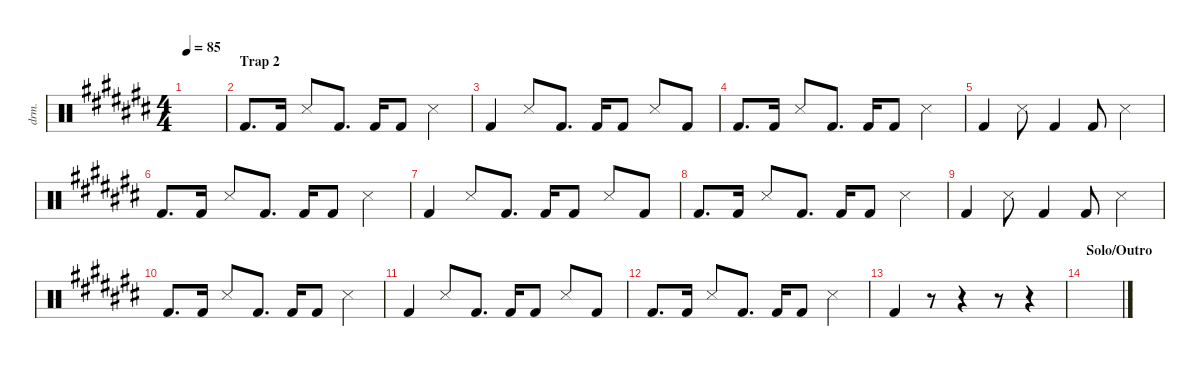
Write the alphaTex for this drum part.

\defaultSystemsLayout 4
\hideDynamics
\bracketExtendMode nobrackets
\otherSystemsTrackNameOrientation horizontal
\track ("Drumkit" "drm.") {instrument percussion}
\staff {score}
\articulation defaults
\ts (4 4)
\tempo 85
\clef neutral
\ks a#minor
|
\section ("" "Trap 2")
"Kick (hit) 2"{acc forcenatural}.8{d} "Kick (hit) 2"{acc forcenatural}.16 "Snare (side stick) 3"{acc forcenatural}.8 "Kick (hit) 2"{acc forcenatural}.8{d} "Kick (hit) 2"{acc forcenatural}.16 "Kick (hit) 2"{acc forcenatural}.8 "Snare (side stick) 3"{acc forcenatural}.4 |
"Kick (hit) 2"{acc forcenatural}.4 "Snare (side stick) 3"{acc forcenatural}.8 "Kick (hit) 2"{acc forcenatural}.8{d} "Kick (hit) 2"{acc forcenatural}.16 "Kick (hit) 2"{acc forcenatural}.8 "Snare (side stick) 3"{acc forcenatural}.8 "Kick (hit) 2"{acc forcenatural}.8 |
"Kick (hit) 2"{acc forcenatural}.8{d} "Kick (hit) 2"{acc forcenatural}.16 "Snare (side stick) 3"{acc forcenatural}.8 "Kick (hit) 2"{acc forcenatural}.8{d} "Kick (hit) 2"{acc forcenatural}.16 "Kick (hit) 2"{acc forcenatural}.8 "Snare (side stick) 3"{acc forcenatural}.4 |
"Kick (hit) 2"{acc forcenatural}.4 "Snare (side stick) 3"{acc forcenatural}.8 "Kick (hit) 2"{acc forcenatural}.4 "Kick (hit) 2"{acc forcenatural}.8 "Snare (side stick) 3"{acc forcenatural}.4 |
"Kick (hit) 2"{acc forcenatural}.8{d} "Kick (hit) 2"{acc forcenatural}.16 "Snare (side stick) 3"{acc forcenatural}.8 "Kick (hit) 2"{acc forcenatural}.8{d} "Kick (hit) 2"{acc forcenatural}.16 "Kick (hit) 2"{acc forcenatural}.8 "Snare (side stick) 3"{acc forcenatural}.4 |
"Kick (hit) 2"{acc forcenatural}.4 "Snare (side stick) 3"{acc forcenatural}.8 "Kick (hit) 2"{acc forcenatural}.8{d} "Kick (hit) 2"{acc forcenatural}.16 "Kick (hit) 2"{acc forcenatural}.8 "Snare (side stick) 3"{acc forcenatural}.8 "Kick (hit) 2"{acc forcenatural}.8 |
"Kick (hit) 2"{acc forcenatural}.8{d} "Kick (hit) 2"{acc forcenatural}.16 "Snare (side stick) 3"{acc forcenatural}.8 "Kick (hit) 2"{acc forcenatural}.8{d} "Kick (hit) 2"{acc forcenatural}.16 "Kick (hit) 2"{acc forcenatural}.8 "Snare (side stick) 3"{acc forcenatural}.4 |
"Kick (hit) 2"{acc forcenatural}.4 "Snare (side stick) 3"{acc forcenatural}.8 "Kick (hit) 2"{acc forcenatural}.4 "Kick (hit) 2"{acc forcenatural}.8 "Snare (side stick) 3"{acc forcenatural}.4 |
"Kick (hit) 2"{acc forcenatural}.8{d} "Kick (hit) 2"{acc forcenatural}.16 "Snare (side stick) 3"{acc forcenatural}.8 "Kick (hit) 2"{acc forcenatural}.8{d} "Kick (hit) 2"{acc forcenatural}.16 "Kick (hit) 2"{acc forcenatural}.8 "Snare (side stick) 3"{acc forcenatural}.4 |
"Kick (hit) 2"{acc forcenatural}.4 "Snare (side stick) 3"{acc forcenatural}.8 "Kick (hit) 2"{acc forcenatural}.8{d} "Kick (hit) 2"{acc forcenatural}.16 "Kick (hit) 2"{acc forcenatural}.8 "Snare (side stick) 3"{acc forcenatural}.8 "Kick (hit) 2"{acc forcenatural}.8 |
"Kick (hit) 2"{acc forcenatural}.8{d} "Kick (hit) 2"{acc forcenatural}.16 "Snare (side stick) 3"{acc forcenatural}.8 "Kick (hit) 2"{acc forcenatural}.8{d} "Kick (hit) 2"{acc forcenatural}.16 "Kick (hit) 2"{acc forcenatural}.8 "Snare (side stick) 3"{acc forcenatural}.4 |
"Kick (hit) 2"{acc forcenatural}.4 r.8{beam Up} r.4{beam Up} r.8{beam Up} r.4{beam Up} |
\section ("" "Solo/Outro")
